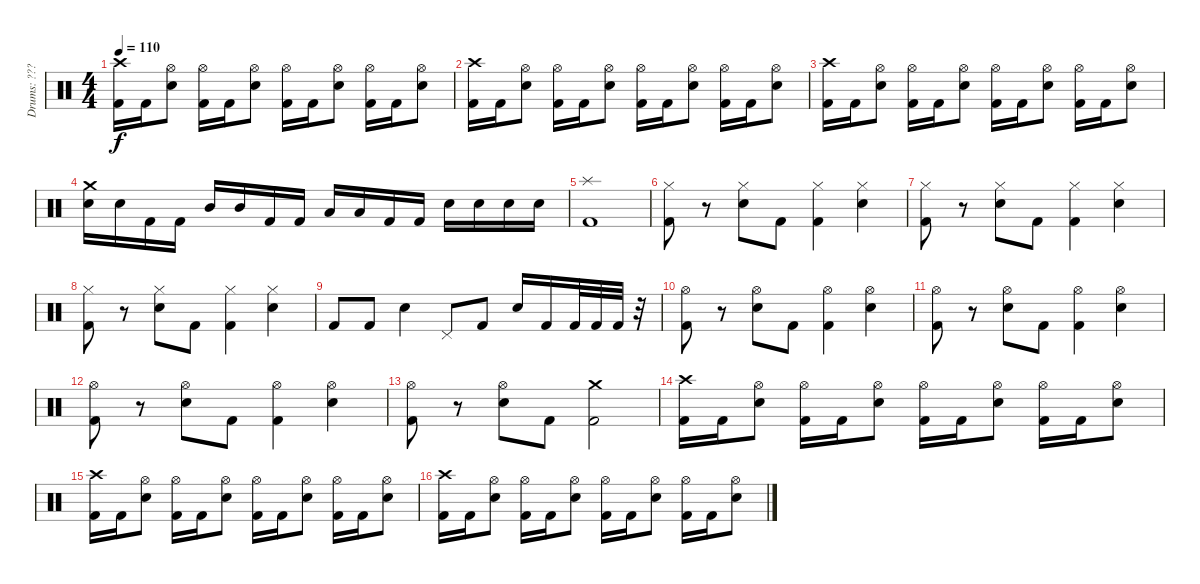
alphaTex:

\track ("Drums: ???" "Drums: ???") {instrument percussion}
\staff {score}
\articulation defaults
\ts (4 4)
\tempo 110
\clef neutral
\ks c
("Kick (hit) 2" "Crash high (hit)").16{dy f} "Kick (hit) 2".16 ("Electric Snare (hit)" "Hi-Hat (open)").8 ("Kick (hit) 2" "Hi-Hat (open)").16 "Kick (hit) 2".16 ("Electric Snare (hit)" "Hi-Hat (open)").8 ("Kick (hit) 2" "Hi-Hat (open)").16 "Kick (hit) 2".16 ("Electric Snare (hit)" "Hi-Hat (open)").8 ("Kick (hit) 2" "Hi-Hat (open)").16 "Kick (hit) 2".16 ("Electric Snare (hit)" "Hi-Hat (open)").8 |
("Kick (hit) 2" "Crash high (hit)").16 "Kick (hit) 2".16 ("Electric Snare (hit)" "Hi-Hat (open)").8 ("Kick (hit) 2" "Hi-Hat (open)").16 "Kick (hit) 2".16 ("Electric Snare (hit)" "Hi-Hat (open)").8 ("Kick (hit) 2" "Hi-Hat (open)").16 "Kick (hit) 2".16 ("Electric Snare (hit)" "Hi-Hat (open)").8 ("Kick (hit) 2" "Hi-Hat (open)").16 "Kick (hit) 2".16 ("Electric Snare (hit)" "Hi-Hat (open)").8 |
("Kick (hit) 2" "Crash high (hit)").16 "Kick (hit) 2".16 ("Electric Snare (hit)" "Hi-Hat (open)").8 ("Kick (hit) 2" "Hi-Hat (open)").16 "Kick (hit) 2".16 ("Electric Snare (hit)" "Hi-Hat (open)").8 ("Kick (hit) 2" "Hi-Hat (open)").16 "Kick (hit) 2".16 ("Electric Snare (hit)" "Hi-Hat (open)").8 ("Kick (hit) 2" "Hi-Hat (open)").16 "Kick (hit) 2".16 ("Electric Snare (hit)" "Hi-Hat (open)").8 |
("Electric Snare (hit)" "Crash medium (hit)").16 "Electric Snare (hit)".16 "Kick (hit) 2".16 "Kick (hit) 2".16 "Mid Tom (hit)".16 "Mid Tom (hit)".16 "Kick (hit) 2".16 "Kick (hit) 2".16 "Low Tom (hit)".16 "Low Tom (hit)".16 "Kick (hit) 2".16 "Kick (hit) 2".16 "Electric Snare (hit)".16 "Electric Snare (hit)".16 "Electric Snare (hit)".16 "Electric Snare (hit)".16 |
("Splash (hit)" "Kick (hit) 2").1 |
("Kick (hit) 2" "Hi-Hat (closed)").8 r.8 ("Electric Snare (hit)" "Hi-Hat (closed)").8 "Kick (hit) 2".8 ("Hi-Hat (closed)" "Kick (hit) 2").4 ("Electric Snare (hit)" "Hi-Hat (closed)").4 |
("Kick (hit) 2" "Hi-Hat (closed)").8 r.8 ("Electric Snare (hit)" "Hi-Hat (closed)").8 "Kick (hit) 2".8 ("Hi-Hat (closed)" "Kick (hit) 2").4 ("Electric Snare (hit)" "Hi-Hat (closed)").4 |
("Kick (hit) 2" "Hi-Hat (closed)").8 r.8 ("Electric Snare (hit)" "Hi-Hat (closed)").8 "Kick (hit) 2".8 ("Hi-Hat (closed)" "Kick (hit) 2").4 ("Electric Snare (hit)" "Hi-Hat (closed)").4 |
"Kick (hit) 2".8 "Kick (hit) 2".8 "Electric Snare (hit)".4 "Pedal Hi-Hat (hit)".8 "Kick (hit) 2".8 "Electric Snare (hit)".16 "Kick (hit) 2".16 "Kick (hit) 2".32 "Kick (hit) 2".32 "Kick (hit) 2".32 r.32 |
("Kick (hit) 2" "Hi-Hat (open)").8 r.8 ("Electric Snare (hit)" "Hi-Hat (open)").8 "Kick (hit) 2".8 ("Hi-Hat (open)" "Kick (hit) 2").4 ("Electric Snare (hit)" "Hi-Hat (open)").4 |
("Kick (hit) 2" "Hi-Hat (open)").8 r.8 ("Electric Snare (hit)" "Hi-Hat (open)").8 "Kick (hit) 2".8 ("Hi-Hat (open)" "Kick (hit) 2").4 ("Electric Snare (hit)" "Hi-Hat (open)").4 |
("Kick (hit) 2" "Hi-Hat (open)").8 r.8 ("Electric Snare (hit)" "Hi-Hat (open)").8 "Kick (hit) 2".8 ("Hi-Hat (open)" "Kick (hit) 2").4 ("Electric Snare (hit)" "Hi-Hat (open)").4 |
("Kick (hit) 2" "Hi-Hat (open)").8 r.8 ("Electric Snare (hit)" "Hi-Hat (open)").8 "Kick (hit) 2".8 ("Kick (hit) 2" "Crash medium (hit)").2 |
("Kick (hit) 2" "Crash high (hit)").16 "Kick (hit) 2".16 ("Electric Snare (hit)" "Hi-Hat (open)").8 ("Kick (hit) 2" "Hi-Hat (open)").16 "Kick (hit) 2".16 ("Electric Snare (hit)" "Hi-Hat (open)").8 ("Kick (hit) 2" "Hi-Hat (open)").16 "Kick (hit) 2".16 ("Electric Snare (hit)" "Hi-Hat (open)").8 ("Kick (hit) 2" "Hi-Hat (open)").16 "Kick (hit) 2".16 ("Electric Snare (hit)" "Hi-Hat (open)").8 |
("Kick (hit) 2" "Crash high (hit)").16 "Kick (hit) 2".16 ("Electric Snare (hit)" "Hi-Hat (open)").8 ("Kick (hit) 2" "Hi-Hat (open)").16 "Kick (hit) 2".16 ("Electric Snare (hit)" "Hi-Hat (open)").8 ("Kick (hit) 2" "Hi-Hat (open)").16 "Kick (hit) 2".16 ("Electric Snare (hit)" "Hi-Hat (open)").8 ("Kick (hit) 2" "Hi-Hat (open)").16 "Kick (hit) 2".16 ("Electric Snare (hit)" "Hi-Hat (open)").8 |
("Kick (hit) 2" "Crash high (hit)").16 "Kick (hit) 2".16 ("Electric Snare (hit)" "Hi-Hat (open)").8 ("Kick (hit) 2" "Hi-Hat (open)").16 "Kick (hit) 2".16 ("Electric Snare (hit)" "Hi-Hat (open)").8 ("Kick (hit) 2" "Hi-Hat (open)").16 "Kick (hit) 2".16 ("Electric Snare (hit)" "Hi-Hat (open)").8 ("Kick (hit) 2" "Hi-Hat (open)").16 "Kick (hit) 2".16 ("Electric Snare (hit)" "Hi-Hat (open)").8
